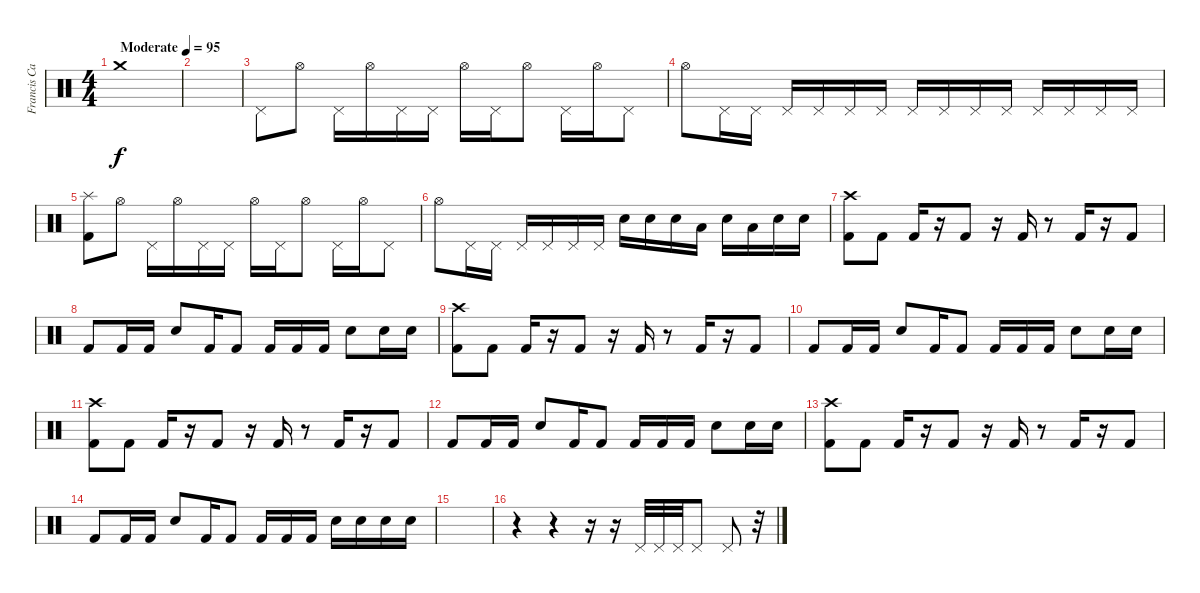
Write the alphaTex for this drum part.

\track ("Francis Cassol" "Francis Ca") {instrument percussion}
\staff {score}
\articulation defaults
\ts (4 4)
\tempo (95 "Moderate")
\clef neutral
\ks c "Crash medium (hit)".1{dy f}
|
|
"Pedal Hi-Hat (hit)".8 "Hi-Hat (open)".8 "Pedal Hi-Hat (hit)".16 "Hi-Hat (open)".16 "Pedal Hi-Hat (hit)".16 "Pedal Hi-Hat (hit)".16 "Hi-Hat (open)".16 "Pedal Hi-Hat (hit)".16 "Hi-Hat (open)".8 "Pedal Hi-Hat (hit)".16 "Hi-Hat (open)".16 "Pedal Hi-Hat (hit)".8 |
"Hi-Hat (open)".8 "Pedal Hi-Hat (hit)".16 "Pedal Hi-Hat (hit)".16 "Pedal Hi-Hat (hit)".16 "Pedal Hi-Hat (hit)".16 "Pedal Hi-Hat (hit)".16 "Pedal Hi-Hat (hit)".16 "Pedal Hi-Hat (hit)".16 "Pedal Hi-Hat (hit)".16 "Pedal Hi-Hat (hit)".16 "Pedal Hi-Hat (hit)".16 "Pedal Hi-Hat (hit)".16 "Pedal Hi-Hat (hit)".16 "Pedal Hi-Hat (hit)".16 "Pedal Hi-Hat (hit)".16 |
("Splash (hit)" "Kick (hit) 2").8 "Hi-Hat (open)".8 "Pedal Hi-Hat (hit)".16 "Hi-Hat (open)".16 "Pedal Hi-Hat (hit)".16 "Pedal Hi-Hat (hit)".16 "Hi-Hat (open)".16 "Pedal Hi-Hat (hit)".16 "Hi-Hat (open)".8 "Pedal Hi-Hat (hit)".16 "Hi-Hat (open)".16 "Pedal Hi-Hat (hit)".8 |
"Hi-Hat (open)".8 "Pedal Hi-Hat (hit)".16 "Pedal Hi-Hat (hit)".16 "Pedal Hi-Hat (hit)".16 "Pedal Hi-Hat (hit)".16 "Pedal Hi-Hat (hit)".16 "Pedal Hi-Hat (hit)".16 "Electric Snare (hit)".16 "Electric Snare (hit)".16 "Electric Snare (hit)".16 "Low Tom (hit)".16 "Electric Snare (hit)".16 "Low Tom (hit)".16 "Electric Snare (hit)".16 "Electric Snare (hit)".16 |
("Crash high (hit)" "Kick (hit) 2").8 "Kick (hit) 2".8 "Kick (hit) 2".16 r.16 "Kick (hit) 2".8 r.16 "Kick (hit) 2".16 r.8 "Kick (hit) 2".16 r.16 "Kick (hit) 2".8 |
"Kick (hit) 2".8 "Kick (hit) 2".16 "Kick (hit) 2".16 "Electric Snare (hit)".8 "Kick (hit) 2".16 "Kick (hit) 2".8 "Kick (hit) 2".16 "Kick (hit) 2".16 "Kick (hit) 2".16 "Electric Snare (hit)".8 "Electric Snare (hit)".16 "Electric Snare (hit)".16 |
("Crash high (hit)" "Kick (hit) 2").8 "Kick (hit) 2".8 "Kick (hit) 2".16 r.16 "Kick (hit) 2".8 r.16 "Kick (hit) 2".16 r.8 "Kick (hit) 2".16 r.16 "Kick (hit) 2".8 |
"Kick (hit) 2".8 "Kick (hit) 2".16 "Kick (hit) 2".16 "Electric Snare (hit)".8 "Kick (hit) 2".16 "Kick (hit) 2".8 "Kick (hit) 2".16 "Kick (hit) 2".16 "Kick (hit) 2".16 "Electric Snare (hit)".8 "Electric Snare (hit)".16 "Electric Snare (hit)".16 |
("Crash high (hit)" "Kick (hit) 2").8 "Kick (hit) 2".8 "Kick (hit) 2".16 r.16 "Kick (hit) 2".8 r.16 "Kick (hit) 2".16 r.8 "Kick (hit) 2".16 r.16 "Kick (hit) 2".8 |
"Kick (hit) 2".8 "Kick (hit) 2".16 "Kick (hit) 2".16 "Electric Snare (hit)".8 "Kick (hit) 2".16 "Kick (hit) 2".8 "Kick (hit) 2".16 "Kick (hit) 2".16 "Kick (hit) 2".16 "Electric Snare (hit)".8 "Electric Snare (hit)".16 "Electric Snare (hit)".16 |
("Crash high (hit)" "Kick (hit) 2").8 "Kick (hit) 2".8 "Kick (hit) 2".16 r.16 "Kick (hit) 2".8 r.16 "Kick (hit) 2".16 r.8 "Kick (hit) 2".16 r.16 "Kick (hit) 2".8 |
"Kick (hit) 2".8 "Kick (hit) 2".16 "Kick (hit) 2".16 "Electric Snare (hit)".8 "Kick (hit) 2".16 "Kick (hit) 2".8 "Kick (hit) 2".16 "Kick (hit) 2".16 "Kick (hit) 2".16 "Electric Snare (hit)".16 "Electric Snare (hit)".16 "Electric Snare (hit)".16 "Electric Snare (hit)".16 |
|
r.4 r.4 r.16 r.16 "Pedal Hi-Hat (hit)".32 "Pedal Hi-Hat (hit)".32 "Pedal Hi-Hat (hit)".32 "Pedal Hi-Hat (hit)".8 "Pedal Hi-Hat (hit)".8 r.32
